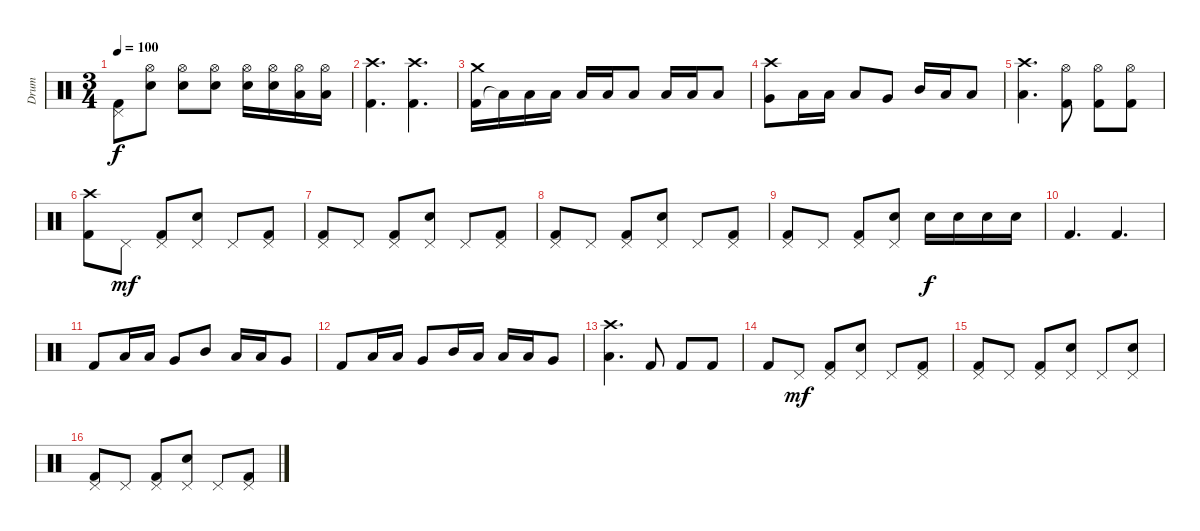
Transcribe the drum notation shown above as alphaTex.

\track ("Drum" "Drum") {instrument percussion}
\staff {score}
\articulation defaults
\ts (3 4)
\tempo 100
\clef neutral
\ks c
("Kick (hit) 2" "Pedal Hi-Hat (hit)").8{dy f} ("Snare (hit) 2" "Hi-Hat (open)").8 ("Snare (hit) 2" "Hi-Hat (open)").8 ("Snare (hit) 2" "Hi-Hat (open)").8 ("Snare (hit) 2" "Hi-Hat (open)").16 ("Snare (hit) 2" "Hi-Hat (open)").16 ("Low Tom (hit)" "Hi-Hat (open)").16 ("Low Tom (hit)" "Hi-Hat (open)").16 |
("Kick (hit) 2" "Crash high (hit)").4{d} ("Kick (hit) 2" "Crash high (hit)").4{d} |
("Kick (hit) 2" "Crash medium (hit)").16 "Low Tom (hit)"{t}.16 "Low Tom (hit)".16 "Low Tom (hit)".16 "Low Tom (hit)".16 "Low Tom (hit)".16 "Low Tom (hit)".8 "Low Tom (hit)".16 "Low Tom (hit)".16 "Low Tom (hit)".8 |
("Very Low Tom (hit)" "Crash high (hit)").8 "Low Tom (hit)".16 "Low Tom (hit)".16 "Low Tom (hit)".8 "Very Low Tom (hit)".8 "Mid Tom (hit)".16 "Low Tom (hit)".16 "Low Tom (hit)".8 |
("Low Tom (hit)" "Crash high (hit)").4{d} ("Kick (hit) 2" "Hi-Hat (open)").8 ("Kick (hit) 2" "Hi-Hat (open)").8 ("Kick (hit) 2" "Hi-Hat (open)").8 |
("Kick (hit) 2" "Crash high (hit)").8 "Pedal Hi-Hat (hit)".8{dy mf} ("Kick (hit) 2" "Pedal Hi-Hat (hit)").8 ("Snare (hit) 2" "Pedal Hi-Hat (hit)").8 "Pedal Hi-Hat (hit)".8 ("Kick (hit) 2" "Pedal Hi-Hat (hit)").8 |
("Kick (hit) 2" "Pedal Hi-Hat (hit)").8 "Pedal Hi-Hat (hit)".8 ("Kick (hit) 2" "Pedal Hi-Hat (hit)").8 ("Snare (hit) 2" "Pedal Hi-Hat (hit)").8 "Pedal Hi-Hat (hit)".8 ("Kick (hit) 2" "Pedal Hi-Hat (hit)").8 |
("Kick (hit) 2" "Pedal Hi-Hat (hit)").8 "Pedal Hi-Hat (hit)".8 ("Kick (hit) 2" "Pedal Hi-Hat (hit)").8 ("Snare (hit) 2" "Pedal Hi-Hat (hit)").8 "Pedal Hi-Hat (hit)".8 ("Kick (hit) 2" "Pedal Hi-Hat (hit)").8 |
("Kick (hit) 2" "Pedal Hi-Hat (hit)").8 "Pedal Hi-Hat (hit)".8 ("Kick (hit) 2" "Pedal Hi-Hat (hit)").8 ("Snare (hit) 2" "Pedal Hi-Hat (hit)").8 "Snare (hit) 2".16{dy f} "Snare (hit) 2".16 "Snare (hit) 2".16 "Snare (hit) 2".16 |
"Kick (hit) 2".4{d} "Kick (hit) 2".4{d} |
"Kick (hit) 2".8 "Low Tom (hit)".16 "Low Tom (hit)".16 "Very Low Tom (hit)".8 "Mid Tom (hit)".8 "Low Tom (hit)".16 "Low Tom (hit)".16 "Very Low Tom (hit)".8 |
"Kick (hit) 2".8 "Low Tom (hit)".16 "Low Tom (hit)".16 "Very Low Tom (hit)".8 "Mid Tom (hit)".16 "Low Tom (hit)".16 "Low Tom (hit)".16 "Low Tom (hit)".16 "Very Low Tom (hit)".8 |
("Low Tom (hit)" "Crash high (hit)").4{d} "Kick (hit) 2".8 "Kick (hit) 2".8 "Kick (hit) 2".8 |
"Kick (hit) 2".8 "Pedal Hi-Hat (hit)".8{dy mf} ("Kick (hit) 2" "Pedal Hi-Hat (hit)").8 ("Snare (hit) 2" "Pedal Hi-Hat (hit)").8 "Pedal Hi-Hat (hit)".8 ("Kick (hit) 2" "Pedal Hi-Hat (hit)").8 |
("Kick (hit) 2" "Pedal Hi-Hat (hit)").8 "Pedal Hi-Hat (hit)".8 ("Kick (hit) 2" "Pedal Hi-Hat (hit)").8 ("Snare (hit) 2" "Pedal Hi-Hat (hit)").8 "Pedal Hi-Hat (hit)".8 ("Snare (hit) 2" "Pedal Hi-Hat (hit)").8 |
("Kick (hit) 2" "Pedal Hi-Hat (hit)").8 "Pedal Hi-Hat (hit)".8 ("Kick (hit) 2" "Pedal Hi-Hat (hit)").8 ("Snare (hit) 2" "Pedal Hi-Hat (hit)").8 "Pedal Hi-Hat (hit)".8 ("Kick (hit) 2" "Pedal Hi-Hat (hit)").8
